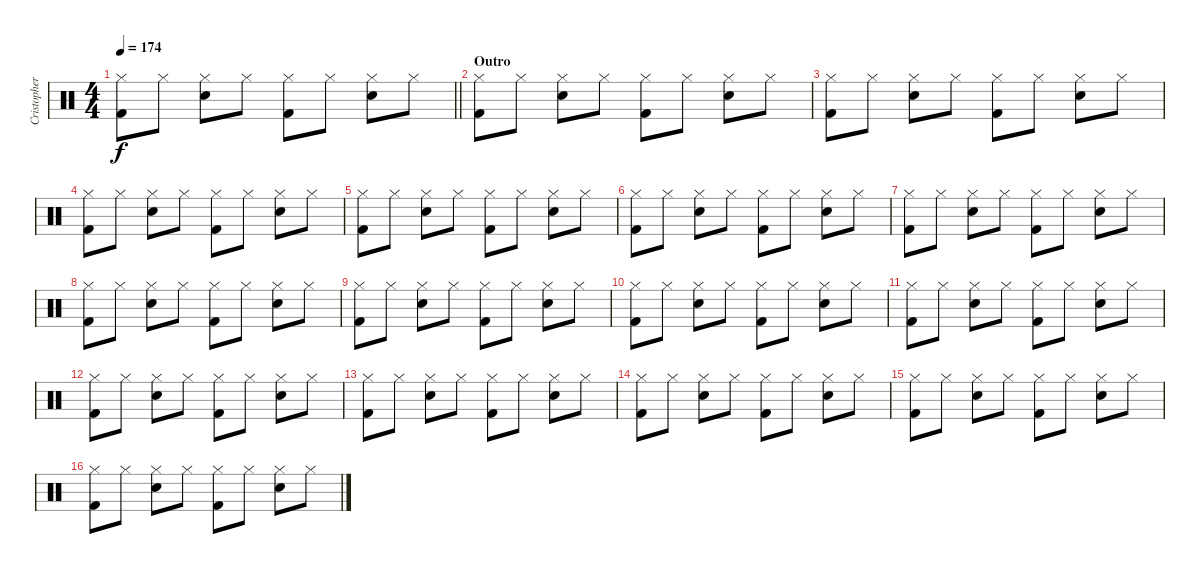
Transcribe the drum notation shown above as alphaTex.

\track ("Cristopher S. (Drums)" "Cristopher") {instrument percussion}
\staff {score}
\articulation defaults
\ts (4 4)
\tempo 174
\clef neutral
\barLineRight lightlight
\ks c
("Kick (hit) 2" "Hi-Hat (closed)").8{dy f} "Hi-Hat (closed)".8 ("Electric Snare (hit)" "Hi-Hat (closed)").8 "Hi-Hat (closed)".8 ("Kick (hit) 2" "Hi-Hat (closed)").8 "Hi-Hat (closed)".8 ("Electric Snare (hit)" "Hi-Hat (closed)").8 "Hi-Hat (closed)".8 |
\section ("" "Outro")
("Kick (hit) 2" "Hi-Hat (closed)").8 "Hi-Hat (closed)".8 ("Electric Snare (hit)" "Hi-Hat (closed)").8 "Hi-Hat (closed)".8 ("Kick (hit) 2" "Hi-Hat (closed)").8 "Hi-Hat (closed)".8 ("Electric Snare (hit)" "Hi-Hat (closed)").8 "Hi-Hat (closed)".8 |
("Kick (hit) 2" "Hi-Hat (closed)").8 "Hi-Hat (closed)".8 ("Electric Snare (hit)" "Hi-Hat (closed)").8 "Hi-Hat (closed)".8 ("Kick (hit) 2" "Hi-Hat (closed)").8 "Hi-Hat (closed)".8 ("Electric Snare (hit)" "Hi-Hat (closed)").8 "Hi-Hat (closed)".8 |
("Kick (hit) 2" "Hi-Hat (closed)").8 "Hi-Hat (closed)".8 ("Electric Snare (hit)" "Hi-Hat (closed)").8 "Hi-Hat (closed)".8 ("Kick (hit) 2" "Hi-Hat (closed)").8 "Hi-Hat (closed)".8 ("Electric Snare (hit)" "Hi-Hat (closed)").8 "Hi-Hat (closed)".8 |
("Kick (hit) 2" "Hi-Hat (closed)").8 "Hi-Hat (closed)".8 ("Electric Snare (hit)" "Hi-Hat (closed)").8 "Hi-Hat (closed)".8 ("Kick (hit) 2" "Hi-Hat (closed)").8 "Hi-Hat (closed)".8 ("Electric Snare (hit)" "Hi-Hat (closed)").8 "Hi-Hat (closed)".8 |
("Kick (hit) 2" "Hi-Hat (closed)").8 "Hi-Hat (closed)".8 ("Electric Snare (hit)" "Hi-Hat (closed)").8 "Hi-Hat (closed)".8 ("Kick (hit) 2" "Hi-Hat (closed)").8 "Hi-Hat (closed)".8 ("Electric Snare (hit)" "Hi-Hat (closed)").8 "Hi-Hat (closed)".8 |
("Kick (hit) 2" "Hi-Hat (closed)").8 "Hi-Hat (closed)".8 ("Electric Snare (hit)" "Hi-Hat (closed)").8 "Hi-Hat (closed)".8 ("Kick (hit) 2" "Hi-Hat (closed)").8 "Hi-Hat (closed)".8 ("Electric Snare (hit)" "Hi-Hat (closed)").8 "Hi-Hat (closed)".8 |
("Kick (hit) 2" "Hi-Hat (closed)").8 "Hi-Hat (closed)".8 ("Electric Snare (hit)" "Hi-Hat (closed)").8 "Hi-Hat (closed)".8 ("Kick (hit) 2" "Hi-Hat (closed)").8 "Hi-Hat (closed)".8 ("Electric Snare (hit)" "Hi-Hat (closed)").8 "Hi-Hat (closed)".8 |
("Kick (hit) 2" "Hi-Hat (closed)").8 "Hi-Hat (closed)".8 ("Electric Snare (hit)" "Hi-Hat (closed)").8 "Hi-Hat (closed)".8 ("Kick (hit) 2" "Hi-Hat (closed)").8 "Hi-Hat (closed)".8 ("Electric Snare (hit)" "Hi-Hat (closed)").8 "Hi-Hat (closed)".8 |
("Kick (hit) 2" "Hi-Hat (closed)").8 "Hi-Hat (closed)".8 ("Electric Snare (hit)" "Hi-Hat (closed)").8 "Hi-Hat (closed)".8 ("Kick (hit) 2" "Hi-Hat (closed)").8 "Hi-Hat (closed)".8 ("Electric Snare (hit)" "Hi-Hat (closed)").8 "Hi-Hat (closed)".8 |
("Kick (hit) 2" "Hi-Hat (closed)").8 "Hi-Hat (closed)".8 ("Electric Snare (hit)" "Hi-Hat (closed)").8 "Hi-Hat (closed)".8 ("Kick (hit) 2" "Hi-Hat (closed)").8 "Hi-Hat (closed)".8 ("Electric Snare (hit)" "Hi-Hat (closed)").8 "Hi-Hat (closed)".8 |
("Kick (hit) 2" "Hi-Hat (closed)").8 "Hi-Hat (closed)".8 ("Electric Snare (hit)" "Hi-Hat (closed)").8 "Hi-Hat (closed)".8 ("Kick (hit) 2" "Hi-Hat (closed)").8 "Hi-Hat (closed)".8 ("Electric Snare (hit)" "Hi-Hat (closed)").8 "Hi-Hat (closed)".8 |
("Kick (hit) 2" "Hi-Hat (closed)").8 "Hi-Hat (closed)".8 ("Electric Snare (hit)" "Hi-Hat (closed)").8 "Hi-Hat (closed)".8 ("Kick (hit) 2" "Hi-Hat (closed)").8 "Hi-Hat (closed)".8 ("Electric Snare (hit)" "Hi-Hat (closed)").8 "Hi-Hat (closed)".8 |
("Kick (hit) 2" "Hi-Hat (closed)").8 "Hi-Hat (closed)".8 ("Electric Snare (hit)" "Hi-Hat (closed)").8 "Hi-Hat (closed)".8 ("Kick (hit) 2" "Hi-Hat (closed)").8 "Hi-Hat (closed)".8 ("Electric Snare (hit)" "Hi-Hat (closed)").8 "Hi-Hat (closed)".8 |
("Kick (hit) 2" "Hi-Hat (closed)").8 "Hi-Hat (closed)".8 ("Electric Snare (hit)" "Hi-Hat (closed)").8 "Hi-Hat (closed)".8 ("Kick (hit) 2" "Hi-Hat (closed)").8 "Hi-Hat (closed)".8 ("Electric Snare (hit)" "Hi-Hat (closed)").8 "Hi-Hat (closed)".8 |
("Kick (hit) 2" "Hi-Hat (closed)").8 "Hi-Hat (closed)".8 ("Electric Snare (hit)" "Hi-Hat (closed)").8 "Hi-Hat (closed)".8 ("Kick (hit) 2" "Hi-Hat (closed)").8 "Hi-Hat (closed)".8 ("Electric Snare (hit)" "Hi-Hat (closed)").8 "Hi-Hat (closed)".8
